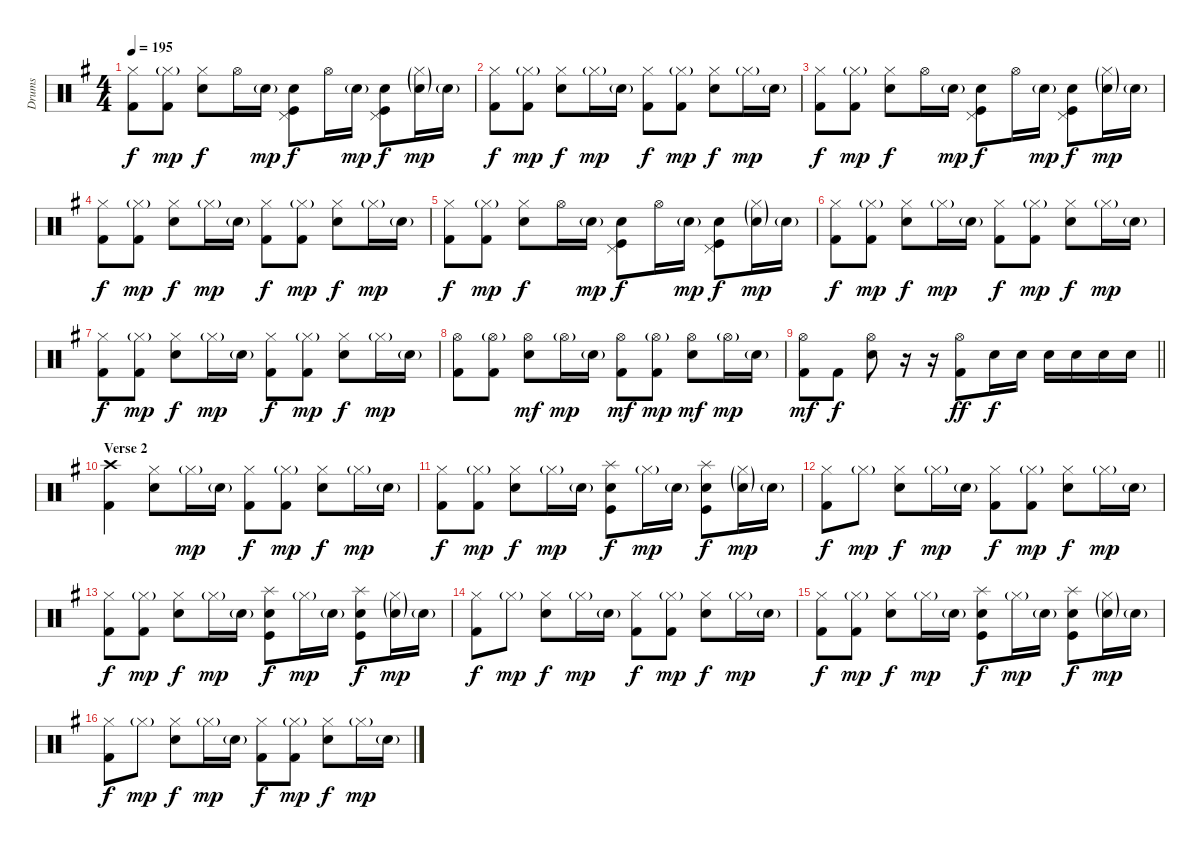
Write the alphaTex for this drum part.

\track ("Drums" "Drums") {instrument percussion}
\staff {score}
\articulation defaults
\ts (4 4)
\tempo 195
\clef neutral
\ks g
("Hi-Hat (closed)" "Kick (hit) 2").8{dy f} ("Hi-Hat (closed)"{g} "Kick (hit) 2").8{dy mp} ("Hi-Hat (closed)" "Electric Snare (hit)").8{dy f} "Hi-Hat (open)".16 "Electric Snare (hit)"{g}.16{dy mp} ("Pedal Hi-Hat (hit)" "Electric Snare (hit)" "Kick (hit)").8{dy f} "Hi-Hat (open)".16 "Electric Snare (hit)"{g}.16{dy mp} ("Pedal Hi-Hat (hit)" "Electric Snare (hit)" "Kick (hit)").8{dy f} ("Hi-Hat (closed)"{g} "Electric Snare (hit)"{g}).16{dy mp} "Electric Snare (hit)"{g}.16 |
("Hi-Hat (closed)" "Kick (hit) 2").8{dy f} ("Hi-Hat (closed)"{g} "Kick (hit) 2").8{dy mp} ("Hi-Hat (closed)" "Electric Snare (hit)").8{dy f} "Hi-Hat (closed)"{g}.16{dy mp} "Electric Snare (hit)"{g}.16 ("Hi-Hat (closed)" "Kick (hit) 2").8{dy f} ("Hi-Hat (closed)"{g} "Kick (hit) 2").8{dy mp} ("Hi-Hat (closed)" "Electric Snare (hit)").8{dy f} "Hi-Hat (closed)"{g}.16{dy mp} "Electric Snare (hit)"{g}.16 |
("Hi-Hat (closed)" "Kick (hit) 2").8{dy f} ("Hi-Hat (closed)"{g} "Kick (hit) 2").8{dy mp} ("Hi-Hat (closed)" "Electric Snare (hit)").8{dy f} "Hi-Hat (open)".16 "Electric Snare (hit)"{g}.16{dy mp} ("Pedal Hi-Hat (hit)" "Electric Snare (hit)" "Kick (hit)").8{dy f} "Hi-Hat (open)".16 "Electric Snare (hit)"{g}.16{dy mp} ("Pedal Hi-Hat (hit)" "Electric Snare (hit)" "Kick (hit)").8{dy f} ("Hi-Hat (closed)"{g} "Electric Snare (hit)"{g}).16{dy mp} "Electric Snare (hit)"{g}.16 |
("Hi-Hat (closed)" "Kick (hit) 2").8{dy f} ("Hi-Hat (closed)"{g} "Kick (hit) 2").8{dy mp} ("Hi-Hat (closed)" "Electric Snare (hit)").8{dy f} "Hi-Hat (closed)"{g}.16{dy mp} "Electric Snare (hit)"{g}.16 ("Hi-Hat (closed)" "Kick (hit) 2").8{dy f} ("Hi-Hat (closed)"{g} "Kick (hit) 2").8{dy mp} ("Hi-Hat (closed)" "Electric Snare (hit)").8{dy f} "Hi-Hat (closed)"{g}.16{dy mp} "Electric Snare (hit)"{g}.16 |
("Hi-Hat (closed)" "Kick (hit) 2").8{dy f} ("Hi-Hat (closed)"{g} "Kick (hit) 2").8{dy mp} ("Hi-Hat (closed)" "Electric Snare (hit)").8{dy f} "Hi-Hat (open)".16 "Electric Snare (hit)"{g}.16{dy mp} ("Pedal Hi-Hat (hit)" "Electric Snare (hit)" "Kick (hit)").8{dy f} "Hi-Hat (open)".16 "Electric Snare (hit)"{g}.16{dy mp} ("Pedal Hi-Hat (hit)" "Electric Snare (hit)" "Kick (hit)").8{dy f} ("Hi-Hat (closed)"{g} "Electric Snare (hit)"{g}).16{dy mp} "Electric Snare (hit)"{g}.16 |
("Hi-Hat (closed)" "Kick (hit) 2").8{dy f} ("Hi-Hat (closed)"{g} "Kick (hit) 2").8{dy mp} ("Hi-Hat (closed)" "Electric Snare (hit)").8{dy f} "Hi-Hat (closed)"{g}.16{dy mp} "Electric Snare (hit)"{g}.16 ("Hi-Hat (closed)" "Kick (hit) 2").8{dy f} ("Hi-Hat (closed)"{g} "Kick (hit) 2").8{dy mp} ("Hi-Hat (closed)" "Electric Snare (hit)").8{dy f} "Hi-Hat (closed)"{g}.16{dy mp} "Electric Snare (hit)"{g}.16 |
("Hi-Hat (closed)" "Kick (hit) 2").8{dy f} ("Hi-Hat (closed)"{g} "Kick (hit) 2").8{dy mp} ("Hi-Hat (closed)" "Electric Snare (hit)").8{dy f} "Hi-Hat (closed)"{g}.16{dy mp} "Electric Snare (hit)"{g}.16 ("Hi-Hat (closed)" "Kick (hit) 2").8{dy f} ("Hi-Hat (closed)"{g} "Kick (hit) 2").8{dy mp} ("Hi-Hat (closed)" "Electric Snare (hit)").8{dy f} "Hi-Hat (closed)"{g}.16{dy mp} "Electric Snare (hit)"{g}.16 |
("Hi-Hat (open)" "Kick (hit) 2").8 ("Hi-Hat (open)"{g} "Kick (hit) 2").8 ("Hi-Hat (open)" "Electric Snare (hit)").8{dy mf} "Hi-Hat (open)"{g}.16{dy mp} "Electric Snare (hit)"{g}.16 ("Hi-Hat (open)" "Kick (hit) 2").8{dy mf} ("Hi-Hat (open)"{g} "Kick (hit) 2").8{dy mp} ("Hi-Hat (open)" "Electric Snare (hit)").8{dy mf} "Hi-Hat (open)"{g}.16{dy mp} "Electric Snare (hit)"{g}.16 |
\barLineRight lightlight
("Hi-Hat (open)" "Kick (hit) 2").8{dy mf} "Kick (hit) 2".8{dy f} ("Hi-Hat (open)" "Electric Snare (hit)").8 r.16 r.16 ("Hi-Hat (open)" "Kick (hit) 2").8{dy ff} "Electric Snare (hit)".16{dy f} "Electric Snare (hit)".16 "Electric Snare (hit)".16 "Electric Snare (hit)".16 "Electric Snare (hit)".16 "Electric Snare (hit)".16 |
\section ("" "Verse 2")
("Crash high (hit)" "Kick (hit) 2").4 ("Hi-Hat (closed)" "Electric Snare (hit)").8 "Hi-Hat (closed)"{g}.16{dy mp} "Electric Snare (hit)"{g}.16 ("Hi-Hat (closed)" "Kick (hit) 2").8{dy f} ("Hi-Hat (closed)"{g} "Kick (hit) 2").8{dy mp} ("Hi-Hat (closed)" "Electric Snare (hit)").8{dy f} "Hi-Hat (closed)"{g}.16{dy mp} "Electric Snare (hit)"{g}.16 |
("Hi-Hat (closed)" "Kick (hit) 2").8{dy f} ("Hi-Hat (closed)"{g} "Kick (hit) 2").8{dy mp} ("Hi-Hat (closed)" "Electric Snare (hit)").8{dy f} "Hi-Hat (closed)"{g}.16{dy mp} "Electric Snare (hit)"{g}.16 ("Splash (hit)" "Electric Snare (hit)" "Kick (hit)").8{dy f} "Hi-Hat (closed)"{g}.16{dy mp} "Electric Snare (hit)"{g}.16 ("Splash (hit)" "Electric Snare (hit)" "Kick (hit)").8{dy f} ("Hi-Hat (closed)"{g} "Electric Snare (hit)"{g}).16{dy mp} "Electric Snare (hit)"{g}.16 |
("Hi-Hat (closed)" "Kick (hit) 2").8{dy f} "Hi-Hat (closed)"{g}.8{dy mp} ("Hi-Hat (closed)" "Electric Snare (hit)").8{dy f} "Hi-Hat (closed)"{g}.16{dy mp} "Electric Snare (hit)"{g}.16 ("Hi-Hat (closed)" "Kick (hit) 2").8{dy f} ("Hi-Hat (closed)"{g} "Kick (hit) 2").8{dy mp} ("Hi-Hat (closed)" "Electric Snare (hit)").8{dy f} "Hi-Hat (closed)"{g}.16{dy mp} "Electric Snare (hit)"{g}.16 |
("Hi-Hat (closed)" "Kick (hit) 2").8{dy f} ("Hi-Hat (closed)"{g} "Kick (hit) 2").8{dy mp} ("Hi-Hat (closed)" "Electric Snare (hit)").8{dy f} "Hi-Hat (closed)"{g}.16{dy mp} "Electric Snare (hit)"{g}.16 ("Splash (hit)" "Electric Snare (hit)" "Kick (hit)").8{dy f} "Hi-Hat (closed)"{g}.16{dy mp} "Electric Snare (hit)"{g}.16 ("Splash (hit)" "Electric Snare (hit)" "Kick (hit)").8{dy f} ("Hi-Hat (closed)"{g} "Electric Snare (hit)"{g}).16{dy mp} "Electric Snare (hit)"{g}.16 |
("Hi-Hat (closed)" "Kick (hit) 2").8{dy f} "Hi-Hat (closed)"{g}.8{dy mp} ("Hi-Hat (closed)" "Electric Snare (hit)").8{dy f} "Hi-Hat (closed)"{g}.16{dy mp} "Electric Snare (hit)"{g}.16 ("Hi-Hat (closed)" "Kick (hit) 2").8{dy f} ("Hi-Hat (closed)"{g} "Kick (hit) 2").8{dy mp} ("Hi-Hat (closed)" "Electric Snare (hit)").8{dy f} "Hi-Hat (closed)"{g}.16{dy mp} "Electric Snare (hit)"{g}.16 |
("Hi-Hat (closed)" "Kick (hit) 2").8{dy f} ("Hi-Hat (closed)"{g} "Kick (hit) 2").8{dy mp} ("Hi-Hat (closed)" "Electric Snare (hit)").8{dy f} "Hi-Hat (closed)"{g}.16{dy mp} "Electric Snare (hit)"{g}.16 ("Splash (hit)" "Electric Snare (hit)" "Kick (hit)").8{dy f} "Hi-Hat (closed)"{g}.16{dy mp} "Electric Snare (hit)"{g}.16 ("Splash (hit)" "Electric Snare (hit)" "Kick (hit)").8{dy f} ("Hi-Hat (closed)"{g} "Electric Snare (hit)"{g}).16{dy mp} "Electric Snare (hit)"{g}.16 |
("Hi-Hat (closed)" "Kick (hit) 2").8{dy f} "Hi-Hat (closed)"{g}.8{dy mp} ("Hi-Hat (closed)" "Electric Snare (hit)").8{dy f} "Hi-Hat (closed)"{g}.16{dy mp} "Electric Snare (hit)"{g}.16 ("Hi-Hat (closed)" "Kick (hit) 2").8{dy f} ("Hi-Hat (closed)"{g} "Kick (hit) 2").8{dy mp} ("Hi-Hat (closed)" "Electric Snare (hit)").8{dy f} "Hi-Hat (closed)"{g}.16{dy mp} "Electric Snare (hit)"{g}.16
